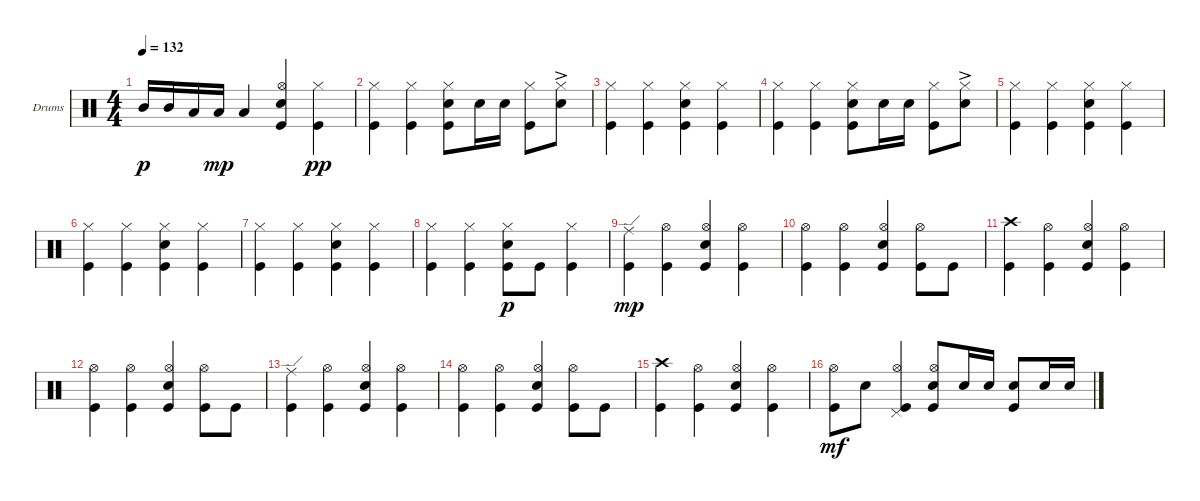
\defaultSystemsLayout 4
\bracketExtendMode groupsimilarinstruments
\firstSystemTrackNameOrientation horizontal
\otherSystemsTrackNameOrientation horizontal
\track ("Steve Judd" "Drums") {instrument percussion}
\staff {score}
\articulation defaults
\ts (4 4)
\tempo 132
\clef neutral
\scale
0.333333
\ks c "Mid Tom (hit)".16{dy p} "Mid Tom (hit)".16 "Low Tom (hit)".16 "Low Tom (hit)".16{dy mp} "Low Tom (hit)".4
("Kick (hit)" "Hi-Hat (open)" "Snare (hit) 2").4 ("Kick (hit)" "Hi-Hat (closed)").4{dy pp} |
\scale
0.333333 ("Kick (hit)" "Hi-Hat (closed)").4 ("Kick (hit)" "Hi-Hat (closed)").4 ("Kick (hit)" "Snare (hit) 2" "Hi-Hat (closed)").8 "Snare (hit) 2".16 "Snare (hit) 2".16 ("Kick (hit)" "Hi-Hat (closed)").8 ("Snare (hit) 2" "Hi-Hat (closed)"{ac}).8 |
\scale
0.333333 ("Kick (hit)" "Hi-Hat (closed)").4 ("Kick (hit)" "Hi-Hat (closed)").4 ("Kick (hit)" "Snare (hit) 2" "Hi-Hat (closed)").4 ("Kick (hit)" "Hi-Hat (closed)").4 |
\scale
0.333333 ("Kick (hit)" "Hi-Hat (closed)").4 ("Kick (hit)" "Hi-Hat (closed)").4 ("Kick (hit)" "Snare (hit) 2" "Hi-Hat (closed)").8 "Snare (hit) 2".16 "Snare (hit) 2".16 ("Kick (hit)" "Hi-Hat (closed)").8 ("Snare (hit) 2" "Hi-Hat (closed)"{ac}).8 |
\scale
0.333333 ("Kick (hit)" "Hi-Hat (closed)").4 ("Kick (hit)" "Hi-Hat (closed)").4 ("Kick (hit)" "Snare (hit) 2" "Hi-Hat (closed)").4 ("Kick (hit)" "Hi-Hat (closed)").4 |
\scale
0.333333 ("Kick (hit)" "Hi-Hat (closed)").4 ("Kick (hit)" "Hi-Hat (closed)").4 ("Kick (hit)" "Snare (hit) 2" "Hi-Hat (closed)").4 ("Kick (hit)" "Hi-Hat (closed)").4 |
\scale
0.333333 ("Kick (hit)" "Hi-Hat (closed)").4 ("Kick (hit)" "Hi-Hat (closed)").4 ("Kick (hit)" "Snare (hit) 2" "Hi-Hat (closed)").4 ("Kick (hit)" "Hi-Hat (closed)").4 |
\scale
0.333333 ("Kick (hit)" "Hi-Hat (closed)").4 ("Kick (hit)" "Hi-Hat (closed)").4 ("Kick (hit)" "Snare (hit) 2" "Hi-Hat (closed)").8{dy p} "Kick (hit)".8 ("Kick (hit)" "Hi-Hat (closed)").4 |
\scale
0.333333 ("Kick (hit)" "Ride (edge)").4{dy mp} ("Kick (hit)" "Hi-Hat (open)").4 ("Kick (hit)" "Hi-Hat (open)" "Snare (hit) 2").4 ("Kick (hit)" "Hi-Hat (open)").4 |
\scale
0.333333 ("Kick (hit)" "Hi-Hat (open)").4 ("Kick (hit)" "Hi-Hat (open)").4 ("Kick (hit)" "Hi-Hat (open)" "Snare (hit) 2").4 ("Kick (hit)" "Hi-Hat (open)").8 "Kick (hit)".8 |
\scale
0.333333 ("Kick (hit)" "Crash high (hit)").4 ("Kick (hit)" "Hi-Hat (open)").4 ("Kick (hit)" "Hi-Hat (open)" "Snare (hit) 2").4 ("Kick (hit)" "Hi-Hat (open)").4 |
\scale
0.333333 ("Kick (hit)" "Hi-Hat (open)").4 ("Kick (hit)" "Hi-Hat (open)").4 ("Kick (hit)" "Hi-Hat (open)" "Snare (hit) 2").4 ("Kick (hit)" "Hi-Hat (open)").8 "Kick (hit)".8 |
\scale
0.333333 ("Kick (hit)" "Ride (edge)").4 ("Kick (hit)" "Hi-Hat (open)").4 ("Kick (hit)" "Hi-Hat (open)" "Snare (hit) 2").4 ("Kick (hit)" "Hi-Hat (open)").4 |
\scale
0.333333 ("Kick (hit)" "Hi-Hat (open)").4 ("Kick (hit)" "Hi-Hat (open)").4 ("Kick (hit)" "Hi-Hat (open)" "Snare (hit) 2").4 ("Kick (hit)" "Hi-Hat (open)").8 "Kick (hit)".8 |
\scale
0.333333 ("Kick (hit)" "Crash high (hit)").4 ("Kick (hit)" "Hi-Hat (open)").4 ("Kick (hit)" "Hi-Hat (open)" "Snare (hit) 2").4 ("Kick (hit)" "Hi-Hat (open)").4 |
\scale
0.333333 ("Hi-Hat (open)" "Kick (hit)").8{dy mf} "Snare (hit) 2".8 ("Pedal Hi-Hat (hit)" "Kick (hit)" "Hi-Hat (open)").4 ("Snare (hit) 2" "Kick (hit)" "Hi-Hat (open)").8 "Snare (hit) 2".16 "Snare (hit) 2".16 ("Kick (hit)" "Snare (hit) 2").8 "Snare (hit) 2".16 "Snare (hit) 2".16
